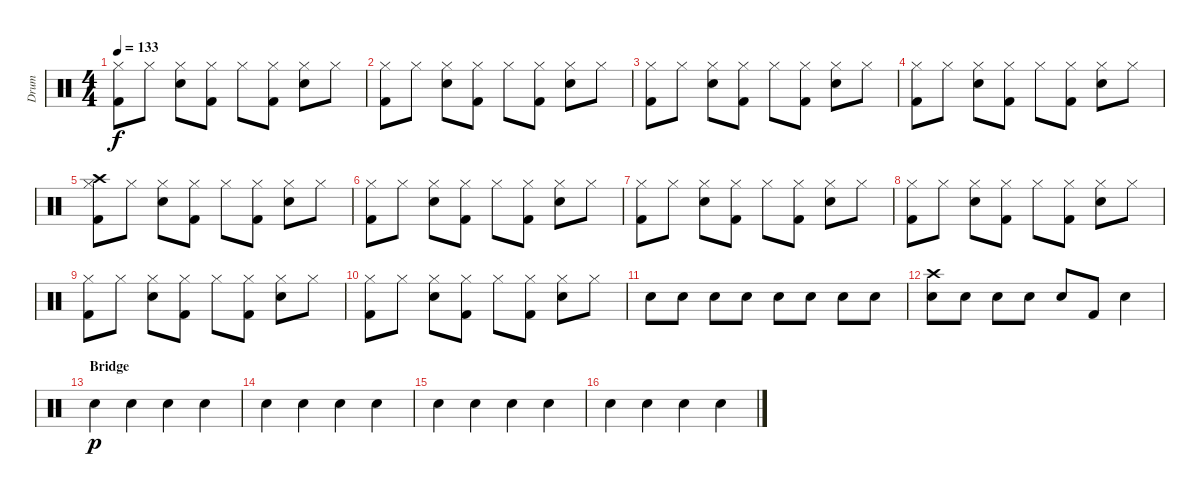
\track ("Drum" "Drum") {instrument percussion}
\staff {score}
\articulation defaults
\ts (4 4)
\tempo 133
\clef neutral
\ks c
("Hi-Hat (closed)" "Kick (hit) 2").8{dy f} "Hi-Hat (closed)".8 ("Snare (hit) 2" "Hi-Hat (closed)").8 ("Hi-Hat (closed)" "Kick (hit) 2").8 "Hi-Hat (closed)".8 ("Hi-Hat (closed)" "Kick (hit) 2").8 ("Snare (hit) 2" "Hi-Hat (closed)").8 "Hi-Hat (closed)".8 |
("Hi-Hat (closed)" "Kick (hit) 2").8 "Hi-Hat (closed)".8 ("Snare (hit) 2" "Hi-Hat (closed)").8 ("Hi-Hat (closed)" "Kick (hit) 2").8 "Hi-Hat (closed)".8 ("Hi-Hat (closed)" "Kick (hit) 2").8 ("Snare (hit) 2" "Hi-Hat (closed)").8 "Hi-Hat (closed)".8 |
("Hi-Hat (closed)" "Kick (hit) 2").8 "Hi-Hat (closed)".8 ("Snare (hit) 2" "Hi-Hat (closed)").8 ("Hi-Hat (closed)" "Kick (hit) 2").8 "Hi-Hat (closed)".8 ("Hi-Hat (closed)" "Kick (hit) 2").8 ("Snare (hit) 2" "Hi-Hat (closed)").8 "Hi-Hat (closed)".8 |
("Hi-Hat (closed)" "Kick (hit) 2").8 "Hi-Hat (closed)".8 ("Snare (hit) 2" "Hi-Hat (closed)").8 ("Hi-Hat (closed)" "Kick (hit) 2").8 "Hi-Hat (closed)".8 ("Hi-Hat (closed)" "Kick (hit) 2").8 ("Snare (hit) 2" "Hi-Hat (closed)").8 "Hi-Hat (closed)".8 |
("Crash high (hit)" "Hi-Hat (closed)" "Kick (hit) 2").8 "Hi-Hat (closed)".8 ("Snare (hit) 2" "Hi-Hat (closed)").8 ("Hi-Hat (closed)" "Kick (hit) 2").8 "Hi-Hat (closed)".8 ("Hi-Hat (closed)" "Kick (hit) 2").8 ("Snare (hit) 2" "Hi-Hat (closed)").8 "Hi-Hat (closed)".8 |
("Hi-Hat (closed)" "Kick (hit) 2").8 "Hi-Hat (closed)".8 ("Snare (hit) 2" "Hi-Hat (closed)").8 ("Hi-Hat (closed)" "Kick (hit) 2").8 "Hi-Hat (closed)".8 ("Hi-Hat (closed)" "Kick (hit) 2").8 ("Snare (hit) 2" "Hi-Hat (closed)").8 "Hi-Hat (closed)".8 |
("Hi-Hat (closed)" "Kick (hit) 2").8 "Hi-Hat (closed)".8 ("Snare (hit) 2" "Hi-Hat (closed)").8 ("Hi-Hat (closed)" "Kick (hit) 2").8 "Hi-Hat (closed)".8 ("Hi-Hat (closed)" "Kick (hit) 2").8 ("Snare (hit) 2" "Hi-Hat (closed)").8 "Hi-Hat (closed)".8 |
("Hi-Hat (closed)" "Kick (hit) 2").8 "Hi-Hat (closed)".8 ("Snare (hit) 2" "Hi-Hat (closed)").8 ("Hi-Hat (closed)" "Kick (hit) 2").8 "Hi-Hat (closed)".8 ("Hi-Hat (closed)" "Kick (hit) 2").8 ("Snare (hit) 2" "Hi-Hat (closed)").8 "Hi-Hat (closed)".8 |
("Hi-Hat (closed)" "Kick (hit) 2").8 "Hi-Hat (closed)".8 ("Snare (hit) 2" "Hi-Hat (closed)").8 ("Hi-Hat (closed)" "Kick (hit) 2").8 "Hi-Hat (closed)".8 ("Hi-Hat (closed)" "Kick (hit) 2").8 ("Snare (hit) 2" "Hi-Hat (closed)").8 "Hi-Hat (closed)".8 |
("Hi-Hat (closed)" "Kick (hit) 2").8 "Hi-Hat (closed)".8 ("Snare (hit) 2" "Hi-Hat (closed)").8 ("Hi-Hat (closed)" "Kick (hit) 2").8 "Hi-Hat (closed)".8 ("Hi-Hat (closed)" "Kick (hit) 2").8 ("Snare (hit) 2" "Hi-Hat (closed)").8 "Hi-Hat (closed)".8 |
"Electric Snare (hit)".8 "Electric Snare (hit)".8 "Electric Snare (hit)".8 "Electric Snare (hit)".8 "Electric Snare (hit)".8 "Electric Snare (hit)".8 "Electric Snare (hit)".8 "Electric Snare (hit)".8 |
("Crash high (hit)" "Snare (hit) 2").8 "Electric Snare (hit)".8 "Electric Snare (hit)".8 "Electric Snare (hit)".8 "Electric Snare (hit)".8 "Kick (hit) 2".8 "Snare (hit) 2".4 |
\section ("" "Bridge")
"Snare (hit) 2".4{dy p} "Snare (hit) 2".4 "Snare (hit) 2".4 "Snare (hit) 2".4 |
"Snare (hit) 2".4 "Snare (hit) 2".4 "Snare (hit) 2".4 "Snare (hit) 2".4 |
"Snare (hit) 2".4 "Snare (hit) 2".4 "Snare (hit) 2".4 "Snare (hit) 2".4 |
"Snare (hit) 2".4 "Snare (hit) 2".4 "Snare (hit) 2".4 "Snare (hit) 2".4
